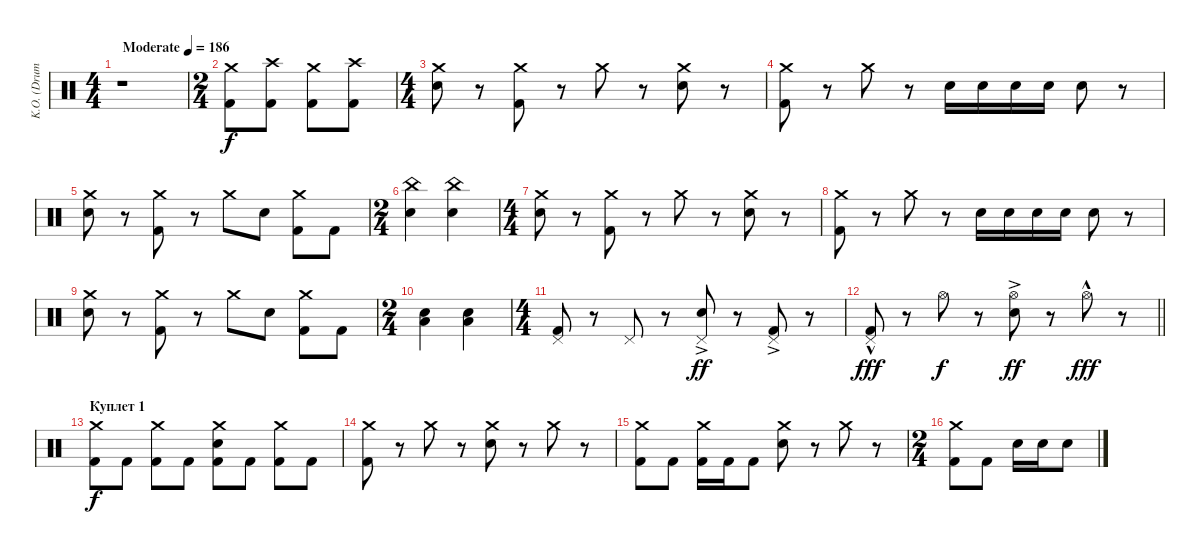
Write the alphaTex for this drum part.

\track ("K.O. (Drums)" "K.O. (Drum") {instrument percussion}
\staff {score}
\articulation defaults
\ts (4 4)
\tempo (186 "Moderate")
\clef neutral
\ks c
r.1{dy f} |
\ts (2 4)
("Crash medium (hit)" "Kick (hit) 2").8 ("Crash high (hit)" "Kick (hit) 2").8 ("Crash medium (hit)" "Kick (hit) 2").8 ("Crash high (hit)" "Kick (hit) 2").8 |
\ts (4 4)
("Crash medium (hit)" "Electric Snare (hit)").8 r.8 ("Crash medium (hit)" "Kick (hit) 2").8 r.8 "Crash medium (hit)".8 r.8 ("Crash medium (hit)" "Electric Snare (hit)").8 r.8 |
("Crash medium (hit)" "Kick (hit) 2").8 r.8 "Crash medium (hit)".8 r.8 "Electric Snare (hit)".16 "Electric Snare (hit)".16 "Electric Snare (hit)".16 "Electric Snare (hit)".16 "Electric Snare (hit)".8 r.8 |
("Crash medium (hit)" "Electric Snare (hit)").8 r.8 ("Crash medium (hit)" "Kick (hit) 2").8 r.8 "Crash medium (hit)".8 "Electric Snare (hit)".8 ("Crash medium (hit)" "Kick (hit) 2").8 "Kick (hit) 2".8 |
\ts (2 4)
("China (hit)" "Electric Snare (hit)").4 ("China (hit)" "Electric Snare (hit)").4 |
\ts (4 4)
("Crash medium (hit)" "Electric Snare (hit)").8 r.8 ("Crash medium (hit)" "Kick (hit) 2").8 r.8 "Crash medium (hit)".8 r.8 ("Crash medium (hit)" "Electric Snare (hit)").8 r.8 |
("Crash medium (hit)" "Kick (hit) 2").8 r.8 "Crash medium (hit)".8 r.8 "Electric Snare (hit)".16 "Electric Snare (hit)".16 "Electric Snare (hit)".16 "Electric Snare (hit)".16 "Electric Snare (hit)".8 r.8 |
("Crash medium (hit)" "Electric Snare (hit)").8 r.8 ("Crash medium (hit)" "Kick (hit) 2").8 r.8 "Crash medium (hit)".8 "Electric Snare (hit)".8 ("Crash medium (hit)" "Kick (hit) 2").8 "Kick (hit) 2".8 |
\ts (2 4)
("Low Floor Tom (hit)" "Electric Snare (hit)").4 ("Low Floor Tom (hit)" "Electric Snare (hit)").4 |
\ts (4 4)
("Pedal Hi-Hat (hit)" "Kick (hit) 2").8 r.8 "Pedal Hi-Hat (hit)".8 r.8 ("Pedal Hi-Hat (hit)"{ac} "Electric Snare (hit)").8{dy ff} r.8 ("Pedal Hi-Hat (hit)"{ac} "Kick (hit) 2").8 r.8 |
\barLineRight lightlight
("Pedal Hi-Hat (hit)"{hac} "Kick (hit) 2").8{dy fff} r.8 "Hi-Hat (open)".8{dy f} r.8 ("Hi-Hat (open)"{ac} "Electric Snare (hit)").8{dy ff} r.8 "Hi-Hat (open)"{hac}.8{dy fff} r.8 |
\section ("" "Куплет 1")
("Crash medium (hit)" "Kick (hit) 2").8{dy f} "Kick (hit) 2".8 ("Crash medium (hit)" "Kick (hit) 2").8 "Kick (hit) 2".8 ("Crash medium (hit)" "Electric Snare (hit)" "Kick (hit) 2").8 "Kick (hit) 2".8 ("Crash medium (hit)" "Kick (hit) 2").8 "Kick (hit) 2".8 |
("Crash medium (hit)" "Kick (hit) 2").8 r.8 "Crash medium (hit)".8 r.8 ("Crash medium (hit)" "Electric Snare (hit)").8 r.8 "Crash medium (hit)".8 r.8 |
("Crash medium (hit)" "Kick (hit) 2").8 "Kick (hit) 2".8 ("Crash medium (hit)" "Kick (hit) 2").16 "Kick (hit) 2".16 "Kick (hit) 2".8 ("Crash medium (hit)" "Electric Snare (hit)").8 r.8 "Crash medium (hit)".8 r.8 |
\ts (2 4)
("Crash medium (hit)" "Kick (hit) 2").8 "Kick (hit) 2".8 "Electric Snare (hit)".16 "Electric Snare (hit)".16 "Electric Snare (hit)".8
